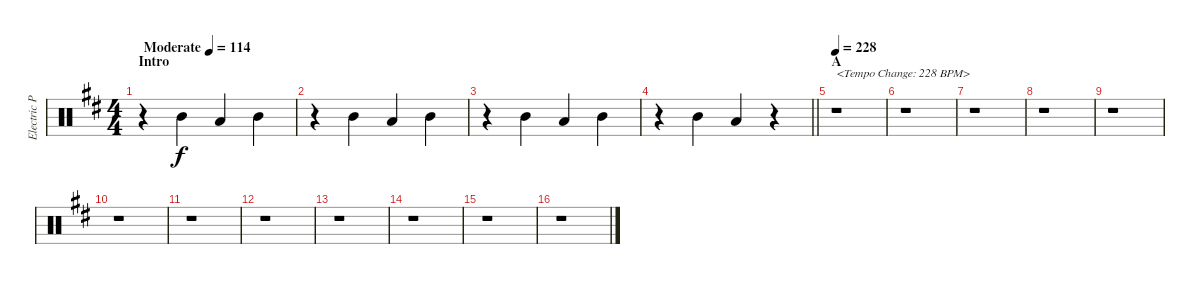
\track ("Electric Percussion" "Electric P") {instrument percussion}
\staff {score}
\articulation defaults
\ts (4 4)
\section ("" "Intro")
\tempo (114 "Moderate")
\clef neutral
\ks d
r.4{dy f} "Mid Tom (hit)".4 "Low Tom (hit)".4 "Mid Tom (hit)".4 |
r.4 "Mid Tom (hit)".4 "Low Tom (hit)".4 "Mid Tom (hit)".4 |
r.4 "Mid Tom (hit)".4 "Low Tom (hit)".4 "Mid Tom (hit)".4 |
\barLineRight lightlight
r.4 "Mid Tom (hit)".4 "Low Tom (hit)".4 r.4 |
\section ("" "A")
\tempo 228
r.1{txt "<Tempo Change: 228 BPM>"} |
r.1 |
r.1 |
r.1 |
r.1 |
r.1 |
r.1 |
r.1 |
r.1 |
r.1 |
r.1 |
r.1
